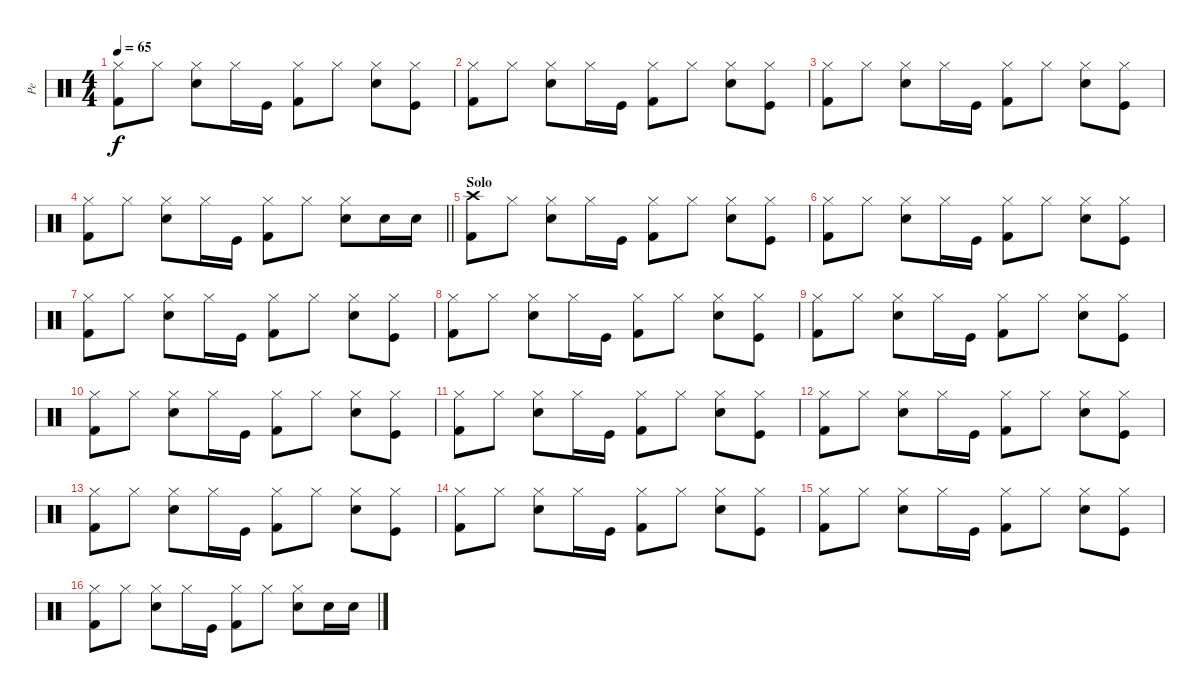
\track ("Pe" "Pe") {instrument percussion}
\staff {score}
\articulation defaults
\ts (4 4)
\tempo 65
\clef neutral
\ks c
("Kick (hit) 2" "Hi-Hat (closed)").8{dy f} "Hi-Hat (closed)".8 ("Electric Snare (hit)" "Hi-Hat (closed)").8 "Hi-Hat (closed)".16 "Kick (hit)".16 ("Kick (hit) 2" "Hi-Hat (closed)").8 "Hi-Hat (closed)".8 ("Electric Snare (hit)" "Hi-Hat (closed)").8 ("Kick (hit)" "Hi-Hat (closed)").8 |
("Kick (hit) 2" "Hi-Hat (closed)").8 "Hi-Hat (closed)".8 ("Electric Snare (hit)" "Hi-Hat (closed)").8 "Hi-Hat (closed)".16 "Kick (hit)".16 ("Kick (hit) 2" "Hi-Hat (closed)").8 "Hi-Hat (closed)".8 ("Electric Snare (hit)" "Hi-Hat (closed)").8 ("Kick (hit)" "Hi-Hat (closed)").8 |
("Kick (hit) 2" "Hi-Hat (closed)").8 "Hi-Hat (closed)".8 ("Electric Snare (hit)" "Hi-Hat (closed)").8 "Hi-Hat (closed)".16 "Kick (hit)".16 ("Kick (hit) 2" "Hi-Hat (closed)").8 "Hi-Hat (closed)".8 ("Electric Snare (hit)" "Hi-Hat (closed)").8 ("Kick (hit)" "Hi-Hat (closed)").8 |
\barLineRight lightlight
("Kick (hit) 2" "Hi-Hat (closed)").8 "Hi-Hat (closed)".8 ("Electric Snare (hit)" "Hi-Hat (closed)").8 "Hi-Hat (closed)".16 "Kick (hit)".16 ("Kick (hit) 2" "Hi-Hat (closed)").8 "Hi-Hat (closed)".8 ("Electric Snare (hit)" "Hi-Hat (closed)").8 "Electric Snare (hit)".16 "Electric Snare (hit)".16 |
\section ("" "Solo")
("Kick (hit) 2" "Crash high (hit)").8 "Hi-Hat (closed)".8 ("Electric Snare (hit)" "Hi-Hat (closed)").8 "Hi-Hat (closed)".16 "Kick (hit)".16 ("Kick (hit) 2" "Hi-Hat (closed)").8 "Hi-Hat (closed)".8 ("Electric Snare (hit)" "Hi-Hat (closed)").8 ("Kick (hit)" "Hi-Hat (closed)").8 |
("Kick (hit) 2" "Hi-Hat (closed)").8 "Hi-Hat (closed)".8 ("Electric Snare (hit)" "Hi-Hat (closed)").8 "Hi-Hat (closed)".16 "Kick (hit)".16 ("Kick (hit) 2" "Hi-Hat (closed)").8 "Hi-Hat (closed)".8 ("Electric Snare (hit)" "Hi-Hat (closed)").8 ("Kick (hit)" "Hi-Hat (closed)").8 |
("Kick (hit) 2" "Hi-Hat (closed)").8 "Hi-Hat (closed)".8 ("Electric Snare (hit)" "Hi-Hat (closed)").8 "Hi-Hat (closed)".16 "Kick (hit)".16 ("Kick (hit) 2" "Hi-Hat (closed)").8 "Hi-Hat (closed)".8 ("Electric Snare (hit)" "Hi-Hat (closed)").8 ("Kick (hit)" "Hi-Hat (closed)").8 |
("Kick (hit) 2" "Hi-Hat (closed)").8 "Hi-Hat (closed)".8 ("Electric Snare (hit)" "Hi-Hat (closed)").8 "Hi-Hat (closed)".16 "Kick (hit)".16 ("Kick (hit) 2" "Hi-Hat (closed)").8 "Hi-Hat (closed)".8 ("Electric Snare (hit)" "Hi-Hat (closed)").8 ("Kick (hit)" "Hi-Hat (closed)").8 |
("Kick (hit) 2" "Hi-Hat (closed)").8 "Hi-Hat (closed)".8 ("Electric Snare (hit)" "Hi-Hat (closed)").8 "Hi-Hat (closed)".16 "Kick (hit)".16 ("Kick (hit) 2" "Hi-Hat (closed)").8 "Hi-Hat (closed)".8 ("Electric Snare (hit)" "Hi-Hat (closed)").8 ("Kick (hit)" "Hi-Hat (closed)").8 |
("Kick (hit) 2" "Hi-Hat (closed)").8 "Hi-Hat (closed)".8 ("Electric Snare (hit)" "Hi-Hat (closed)").8 "Hi-Hat (closed)".16 "Kick (hit)".16 ("Kick (hit) 2" "Hi-Hat (closed)").8 "Hi-Hat (closed)".8 ("Electric Snare (hit)" "Hi-Hat (closed)").8 ("Kick (hit)" "Hi-Hat (closed)").8 |
("Kick (hit) 2" "Hi-Hat (closed)").8 "Hi-Hat (closed)".8 ("Electric Snare (hit)" "Hi-Hat (closed)").8 "Hi-Hat (closed)".16 "Kick (hit)".16 ("Kick (hit) 2" "Hi-Hat (closed)").8 "Hi-Hat (closed)".8 ("Electric Snare (hit)" "Hi-Hat (closed)").8 ("Kick (hit)" "Hi-Hat (closed)").8 |
("Kick (hit) 2" "Hi-Hat (closed)").8 "Hi-Hat (closed)".8 ("Electric Snare (hit)" "Hi-Hat (closed)").8 "Hi-Hat (closed)".16 "Kick (hit)".16 ("Kick (hit) 2" "Hi-Hat (closed)").8 "Hi-Hat (closed)".8 ("Electric Snare (hit)" "Hi-Hat (closed)").8 ("Kick (hit)" "Hi-Hat (closed)").8 |
("Kick (hit) 2" "Hi-Hat (closed)").8 "Hi-Hat (closed)".8 ("Electric Snare (hit)" "Hi-Hat (closed)").8 "Hi-Hat (closed)".16 "Kick (hit)".16 ("Kick (hit) 2" "Hi-Hat (closed)").8 "Hi-Hat (closed)".8 ("Electric Snare (hit)" "Hi-Hat (closed)").8 ("Kick (hit)" "Hi-Hat (closed)").8 |
("Kick (hit) 2" "Hi-Hat (closed)").8 "Hi-Hat (closed)".8 ("Electric Snare (hit)" "Hi-Hat (closed)").8 "Hi-Hat (closed)".16 "Kick (hit)".16 ("Kick (hit) 2" "Hi-Hat (closed)").8 "Hi-Hat (closed)".8 ("Electric Snare (hit)" "Hi-Hat (closed)").8 ("Kick (hit)" "Hi-Hat (closed)").8 |
("Kick (hit) 2" "Hi-Hat (closed)").8 "Hi-Hat (closed)".8 ("Electric Snare (hit)" "Hi-Hat (closed)").8 "Hi-Hat (closed)".16 "Kick (hit)".16 ("Kick (hit) 2" "Hi-Hat (closed)").8 "Hi-Hat (closed)".8 ("Electric Snare (hit)" "Hi-Hat (closed)").8 ("Kick (hit)" "Hi-Hat (closed)").8 |
("Kick (hit) 2" "Hi-Hat (closed)").8 "Hi-Hat (closed)".8 ("Electric Snare (hit)" "Hi-Hat (closed)").8 "Hi-Hat (closed)".16 "Kick (hit)".16 ("Kick (hit) 2" "Hi-Hat (closed)").8 "Hi-Hat (closed)".8 ("Electric Snare (hit)" "Hi-Hat (closed)").8 "Electric Snare (hit)".16 "Electric Snare (hit)".16
